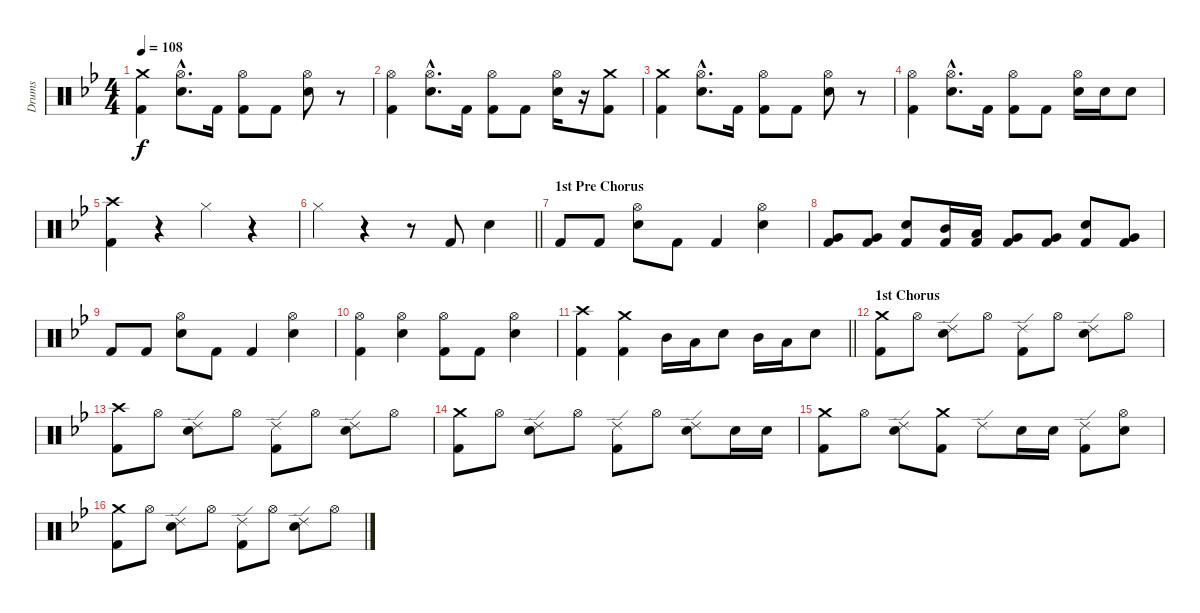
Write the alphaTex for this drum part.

\track ("Drums" "Drums") {instrument percussion}
\staff {score}
\articulation defaults
\ts (4 4)
\tempo 108
\clef neutral
\ks gminor
("Crash medium (hit)" "Kick (hit) 2").4{dy f} ("Hi-Hat (open)"{hac} "Snare (hit) 2"{hac}).8{d} "Kick (hit) 2".16 ("Hi-Hat (open)" "Kick (hit) 2").8 "Kick (hit) 2".8 ("Hi-Hat (open)" "Snare (hit) 2").8 r.8 |
("Hi-Hat (open)" "Kick (hit) 2").4 ("Hi-Hat (open)"{hac} "Snare (hit) 2"{hac}).8{d} "Kick (hit) 2".16 ("Hi-Hat (open)" "Kick (hit) 2").8 "Kick (hit) 2".8 ("Hi-Hat (open)" "Snare (hit) 2").16 r.16 ("Crash medium (hit)" "Kick (hit) 2").8 |
("Crash medium (hit)" "Kick (hit) 2").4 ("Hi-Hat (open)"{hac} "Snare (hit) 2"{hac}).8{d} "Kick (hit) 2".16 ("Hi-Hat (open)" "Kick (hit) 2").8 "Kick (hit) 2".8 ("Hi-Hat (open)" "Snare (hit) 2").8 r.8 |
("Hi-Hat (open)" "Kick (hit) 2").4 ("Hi-Hat (open)"{hac} "Snare (hit) 2"{hac}).8{d} "Kick (hit) 2".16 ("Hi-Hat (open)" "Kick (hit) 2").8 "Kick (hit) 2".8 ("Hi-Hat (open)" "Snare (hit) 2").16 "Snare (hit) 2".16 "Snare (hit) 2".8 |
("Crash high (hit)" "Kick (hit) 2").4 r.4 "Hi-Hat (closed)".4 r.4 |
\barLineRight lightlight "Hi-Hat (closed)".4
r.4 r.8 "Kick (hit) 2".8 "Snare (hit) 2".4 |
\section ("" "1st Pre Chorus")
"Kick (hit) 2".8 "Kick (hit) 2".8 ("Hi-Hat (open)" "Snare (hit) 2").8 "Kick (hit) 2".8 "Kick (hit) 2".4 ("Hi-Hat (open)" "Snare (hit) 2").4 |
("Very Low Tom (hit)" "Kick (hit) 2").8 ("Very Low Tom (hit)" "Kick (hit) 2").8 ("Snare (hit) 2" "Kick (hit) 2").8 ("Mid Tom (hit)" "Kick (hit) 2").16 ("Low Tom (hit)" "Kick (hit) 2").16 ("Very Low Tom (hit)" "Kick (hit) 2").8 ("Very Low Tom (hit)" "Kick (hit) 2").8 ("Snare (hit) 2" "Kick (hit) 2").8 ("Very Low Tom (hit)" "Kick (hit) 2").8 |
"Kick (hit) 2".8 "Kick (hit) 2".8 ("Hi-Hat (open)" "Snare (hit) 2").8 "Kick (hit) 2".8 "Kick (hit) 2".4 ("Hi-Hat (open)" "Snare (hit) 2").4 |
("Hi-Hat (open)" "Kick (hit) 2").4 ("Hi-Hat (open)" "Snare (hit) 2").4 ("Hi-Hat (open)" "Kick (hit) 2").8 "Kick (hit) 2".8 ("Hi-Hat (open)" "Snare (hit) 2").4 |
\barLineRight lightlight
("Crash high (hit)" "Kick (hit) 2").4 ("Crash medium (hit)" "Kick (hit) 2").4 "Mid Tom (hit)".16 "Low Tom (hit)".16 "Snare (hit) 2".8 "Mid Tom (hit)".16 "Low Tom (hit)".16 "Snare (hit) 2".8 |
\section ("" "1st Chorus")
("Crash medium (hit)" "Kick (hit) 2").8 "Hi-Hat (open)".8 ("Ride (edge) 2" "Snare (hit) 2").8 "Hi-Hat (open)".8 ("Ride (edge) 2" "Kick (hit) 2").8 "Hi-Hat (open)".8 ("Ride (edge) 2" "Snare (hit) 2").8 "Hi-Hat (open)".8 |
("Crash high (hit)" "Kick (hit) 2").8 "Hi-Hat (open)".8 ("Ride (edge) 2" "Snare (hit) 2").8 "Hi-Hat (open)".8 ("Ride (edge) 2" "Kick (hit) 2").8 "Hi-Hat (open)".8 ("Ride (edge) 2" "Snare (hit) 2").8 "Hi-Hat (open)".8 |
("Crash medium (hit)" "Kick (hit) 2").8 "Hi-Hat (open)".8 ("Ride (edge) 2" "Snare (hit) 2").8 "Hi-Hat (open)".8 ("Ride (edge) 2" "Kick (hit) 2").8 "Hi-Hat (open)".8 ("Ride (edge) 2" "Snare (hit) 2").8 "Snare (hit) 2".16 "Snare (hit) 2".16 |
("Crash medium (hit)" "Kick (hit) 2").8 "Hi-Hat (open)".8 ("Ride (edge) 2" "Snare (hit) 2").8 ("Crash medium (hit)" "Kick (hit) 2").8 "Ride (edge) 2".8 "Snare (hit) 2".16 "Snare (hit) 2".16 ("Ride (edge) 2" "Kick (hit) 2").8 ("Hi-Hat (open)" "Snare (hit) 2").8 |
("Crash medium (hit)" "Kick (hit) 2").8 "Hi-Hat (open)".8 ("Ride (edge) 2" "Snare (hit) 2").8 "Hi-Hat (open)".8 ("Ride (edge) 2" "Kick (hit) 2").8 "Hi-Hat (open)".8 ("Ride (edge) 2" "Snare (hit) 2").8 "Hi-Hat (open)".8
